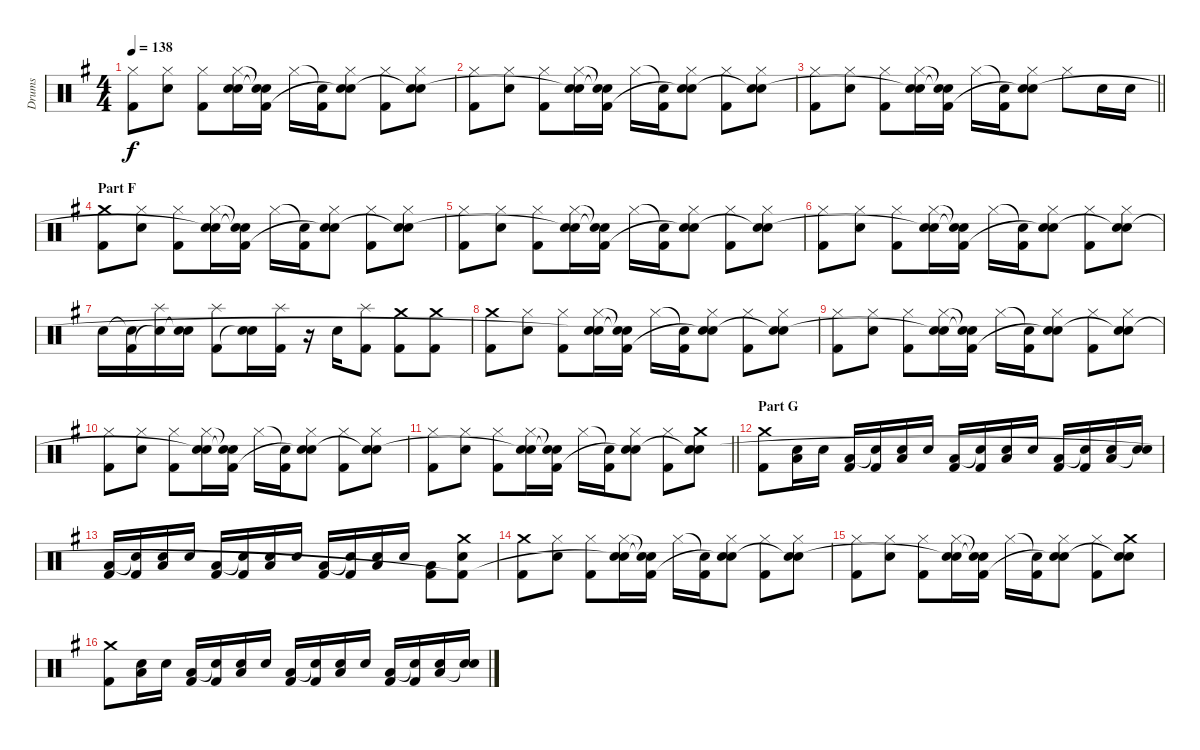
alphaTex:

\track ("Drums" "Drums") {instrument percussion}
\staff {score}
\articulation defaults
\ts (4 4)
\tempo 138
\clef neutral
\ks g
("Hi-Hat (closed)" "Kick (hit) 2").8{dy f} ("Hi-Hat (closed)" "Electric Snare (hit)").8 ("Hi-Hat (closed)" "Kick (hit) 2").8 ("Hi-Hat (closed)" "Electric Snare (hit)" "Snare (hit)"{t}).16 ("Snare (hit)"{t} "Snare (hit)"{t} "Kick (hit) 2").16 "Hi-Hat (closed)".16 ("Snare (hit)"{t} "Kick (hit) 2").16 ("Hi-Hat (closed)" "Electric Snare (hit)" "Snare (hit)"{t}).8 ("Hi-Hat (closed)" "Kick (hit) 2").8 ("Hi-Hat (closed)" "Electric Snare (hit)" "Snare (hit)"{t}).8 |
("Hi-Hat (closed)" "Kick (hit) 2").8 ("Hi-Hat (closed)" "Electric Snare (hit)").8 ("Hi-Hat (closed)" "Kick (hit) 2").8 ("Hi-Hat (closed)" "Electric Snare (hit)" "Snare (hit)"{t}).16 ("Snare (hit)"{t} "Snare (hit)"{t} "Kick (hit) 2").16 "Hi-Hat (closed)".16 ("Snare (hit)"{t} "Kick (hit) 2").16 ("Hi-Hat (closed)" "Electric Snare (hit)" "Snare (hit)"{t}).8 ("Hi-Hat (closed)" "Kick (hit) 2").8 ("Hi-Hat (closed)" "Electric Snare (hit)" "Snare (hit)"{t}).8 |
\barLineRight lightlight
("Hi-Hat (closed)" "Kick (hit) 2").8 ("Hi-Hat (closed)" "Electric Snare (hit)").8 ("Hi-Hat (closed)" "Kick (hit) 2").8 ("Hi-Hat (closed)" "Electric Snare (hit)" "Snare (hit)"{t}).16 ("Snare (hit)"{t} "Snare (hit)"{t} "Kick (hit) 2").16 "Hi-Hat (closed)".16 ("Snare (hit)"{t} "Kick (hit) 2").16 ("Hi-Hat (closed)" "Electric Snare (hit)" "Snare (hit)"{t}).8 "Hi-Hat (closed)".8 "Electric Snare (hit)".16 "Electric Snare (hit)".16 |
\section ("" "Part F")
("Crash medium (hit)" "Kick (hit) 2").8 ("Hi-Hat (closed)" "Electric Snare (hit)").8 ("Hi-Hat (closed)" "Kick (hit) 2").8 ("Hi-Hat (closed)" "Electric Snare (hit)" "Snare (hit)"{t}).16 ("Snare (hit)"{t} "Snare (hit)"{t} "Kick (hit) 2").16 "Hi-Hat (closed)".16 ("Snare (hit)"{t} "Kick (hit) 2").16 ("Hi-Hat (closed)" "Electric Snare (hit)" "Snare (hit)"{t}).8 ("Hi-Hat (closed)" "Kick (hit) 2").8 ("Hi-Hat (closed)" "Electric Snare (hit)" "Snare (hit)"{t}).8 |
("Hi-Hat (closed)" "Kick (hit) 2").8 ("Hi-Hat (closed)" "Electric Snare (hit)").8 ("Hi-Hat (closed)" "Kick (hit) 2").8 ("Hi-Hat (closed)" "Electric Snare (hit)" "Snare (hit)"{t}).16 ("Snare (hit)"{t} "Snare (hit)"{t} "Kick (hit) 2").16 "Hi-Hat (closed)".16 ("Snare (hit)"{t} "Kick (hit) 2").16 ("Hi-Hat (closed)" "Electric Snare (hit)" "Snare (hit)"{t}).8 ("Hi-Hat (closed)" "Kick (hit) 2").8 ("Hi-Hat (closed)" "Electric Snare (hit)" "Snare (hit)"{t}).8 |
("Hi-Hat (closed)" "Kick (hit) 2").8 ("Hi-Hat (closed)" "Electric Snare (hit)").8 ("Hi-Hat (closed)" "Kick (hit) 2").8 ("Hi-Hat (closed)" "Electric Snare (hit)" "Snare (hit)"{t}).16 ("Snare (hit)"{t} "Snare (hit)"{t} "Kick (hit) 2").16 "Hi-Hat (closed)".16 ("Snare (hit)"{t} "Kick (hit) 2").16 ("Hi-Hat (closed)" "Electric Snare (hit)" "Snare (hit)"{t}).8 ("Hi-Hat (closed)" "Kick (hit) 2").8 ("Hi-Hat (closed)" "Electric Snare (hit)" "Snare (hit)"{t}).8 |
"Electric Snare (hit)".16 ("Snare (hit)"{t} "Kick (hit) 2").16 ("Splash (hit)" "Snare (hit)"{t}).16 ("Electric Snare (hit)" "Snare (hit)"{t}).16 ("Splash (hit)" "Kick (hit) 2").8 ("Electric Snare (hit)" "Snare (hit)"{t}).16 ("Splash (hit)" "Kick (hit) 2").16 r.16 "Electric Snare (hit)".16 ("Splash (hit)" "Kick (hit) 2").8 ("Crash medium (hit)" "Kick (hit) 2").8 ("Crash medium (hit)" "Kick (hit) 2").8 |
("Crash medium (hit)" "Kick (hit) 2").8 ("Hi-Hat (closed)" "Electric Snare (hit)").8 ("Hi-Hat (closed)" "Kick (hit) 2").8 ("Hi-Hat (closed)" "Electric Snare (hit)" "Snare (hit)"{t}).16 ("Snare (hit)"{t} "Snare (hit)"{t} "Kick (hit) 2").16 "Hi-Hat (closed)".16 ("Snare (hit)"{t} "Kick (hit) 2").16 ("Hi-Hat (closed)" "Electric Snare (hit)" "Snare (hit)"{t}).8 ("Hi-Hat (closed)" "Kick (hit) 2").8 ("Hi-Hat (closed)" "Electric Snare (hit)" "Snare (hit)"{t}).8 |
("Hi-Hat (closed)" "Kick (hit) 2").8 ("Hi-Hat (closed)" "Electric Snare (hit)").8 ("Hi-Hat (closed)" "Kick (hit) 2").8 ("Hi-Hat (closed)" "Electric Snare (hit)" "Snare (hit)"{t}).16 ("Snare (hit)"{t} "Snare (hit)"{t} "Kick (hit) 2").16 "Hi-Hat (closed)".16 ("Snare (hit)"{t} "Kick (hit) 2").16 ("Hi-Hat (closed)" "Electric Snare (hit)" "Snare (hit)"{t}).8 ("Hi-Hat (closed)" "Kick (hit) 2").8 ("Hi-Hat (closed)" "Electric Snare (hit)" "Snare (hit)"{t}).8 |
("Hi-Hat (closed)" "Kick (hit) 2").8 ("Hi-Hat (closed)" "Electric Snare (hit)").8 ("Hi-Hat (closed)" "Kick (hit) 2").8 ("Hi-Hat (closed)" "Electric Snare (hit)" "Snare (hit)"{t}).16 ("Snare (hit)"{t} "Snare (hit)"{t} "Kick (hit) 2").16 "Hi-Hat (closed)".16 ("Snare (hit)"{t} "Kick (hit) 2").16 ("Hi-Hat (closed)" "Electric Snare (hit)" "Snare (hit)"{t}).8 ("Hi-Hat (closed)" "Kick (hit) 2").8 ("Hi-Hat (closed)" "Electric Snare (hit)" "Snare (hit)"{t}).8 |
\barLineRight lightlight
("Hi-Hat (closed)" "Kick (hit) 2").8 ("Hi-Hat (closed)" "Electric Snare (hit)").8 ("Hi-Hat (closed)" "Kick (hit) 2").8 ("Hi-Hat (closed)" "Electric Snare (hit)" "Snare (hit)"{t}).16 ("Snare (hit)"{t} "Snare (hit)"{t} "Kick (hit) 2").16 "Hi-Hat (closed)".16 ("Snare (hit)"{t} "Kick (hit) 2").16 ("Hi-Hat (closed)" "Electric Snare (hit)" "Snare (hit)"{t}).8 ("Hi-Hat (closed)" "Kick (hit) 2").8 ("Crash medium (hit)" "Electric Snare (hit)" "Snare (hit)"{t}).8 |
\section ("" "Part G")
("Crash medium (hit)" "Kick (hit) 2").8 ("Electric Snare (hit)" "Low Floor Tom (hit)").16 "Electric Snare (hit)".16 ("Low Floor Tom (hit)" "Kick (hit) 2").16 ("Snare (hit)"{t} "Kick (hit) 2").16 ("Electric Snare (hit)" "Low Floor Tom (hit)").16 "Electric Snare (hit)".16 ("Low Floor Tom (hit)" "Kick (hit) 2").16 ("Snare (hit)"{t} "Kick (hit) 2").16 ("Electric Snare (hit)" "Low Floor Tom (hit)").16 "Electric Snare (hit)".16 ("Low Floor Tom (hit)" "Kick (hit) 2").16 ("Snare (hit)"{t} "Kick (hit) 2").16 ("Electric Snare (hit)" "Low Floor Tom (hit)").16 ("Electric Snare (hit)" "Snare (hit)"{t}).16 |
("Low Floor Tom (hit)" "Kick (hit) 2").16 ("Snare (hit)"{t} "Kick (hit) 2").16 ("Electric Snare (hit)" "Low Floor Tom (hit)").16 "Electric Snare (hit)".16 ("Low Floor Tom (hit)" "Kick (hit) 2").16 ("Snare (hit)"{t} "Kick (hit) 2").16 ("Electric Snare (hit)" "Low Floor Tom (hit)").16 "Electric Snare (hit)".16 ("Low Floor Tom (hit)" "Kick (hit) 2").16 ("Snare (hit)"{t} "Kick (hit) 2").16 ("Electric Snare (hit)" "Low Floor Tom (hit)").16 "Electric Snare (hit)".16 ("Low Floor Tom (hit)" "Kick (hit) 2").8 ("Crash medium (hit)" "Electric Snare (hit)" "Kick (hit) 2"{t}).8 |
("Crash medium (hit)" "Kick (hit) 2").8 ("Hi-Hat (closed)" "Electric Snare (hit)").8 ("Hi-Hat (closed)" "Kick (hit) 2").8 ("Hi-Hat (closed)" "Electric Snare (hit)" "Snare (hit)"{t}).16 ("Snare (hit)"{t} "Snare (hit)"{t} "Kick (hit) 2").16 "Hi-Hat (closed)".16 ("Snare (hit)"{t} "Kick (hit) 2").16 ("Hi-Hat (closed)" "Electric Snare (hit)" "Snare (hit)"{t}).8 ("Hi-Hat (closed)" "Kick (hit) 2").8 ("Hi-Hat (closed)" "Electric Snare (hit)" "Snare (hit)"{t}).8 |
("Hi-Hat (closed)" "Kick (hit) 2").8 ("Hi-Hat (closed)" "Electric Snare (hit)").8 ("Hi-Hat (closed)" "Kick (hit) 2").8 ("Hi-Hat (closed)" "Electric Snare (hit)" "Snare (hit)"{t}).16 ("Snare (hit)"{t} "Snare (hit)"{t} "Kick (hit) 2").16 "Hi-Hat (closed)".16 ("Snare (hit)"{t} "Kick (hit) 2").16 ("Hi-Hat (closed)" "Electric Snare (hit)" "Snare (hit)"{t}).8 ("Hi-Hat (closed)" "Kick (hit) 2").8 ("Crash medium (hit)" "Electric Snare (hit)" "Snare (hit)"{t}).8 |
("Crash medium (hit)" "Kick (hit) 2").8 ("Electric Snare (hit)" "Low Floor Tom (hit)").16 "Electric Snare (hit)".16 ("Low Floor Tom (hit)" "Kick (hit) 2").16 ("Snare (hit)"{t} "Kick (hit) 2").16 ("Electric Snare (hit)" "Low Floor Tom (hit)").16 "Electric Snare (hit)".16 ("Low Floor Tom (hit)" "Kick (hit) 2").16 ("Snare (hit)"{t} "Kick (hit) 2").16 ("Electric Snare (hit)" "Low Floor Tom (hit)").16 "Electric Snare (hit)".16 ("Low Floor Tom (hit)" "Kick (hit) 2").16 ("Snare (hit)"{t} "Kick (hit) 2").16 ("Electric Snare (hit)" "Low Floor Tom (hit)").16 ("Electric Snare (hit)" "Snare (hit)"{t}).16
